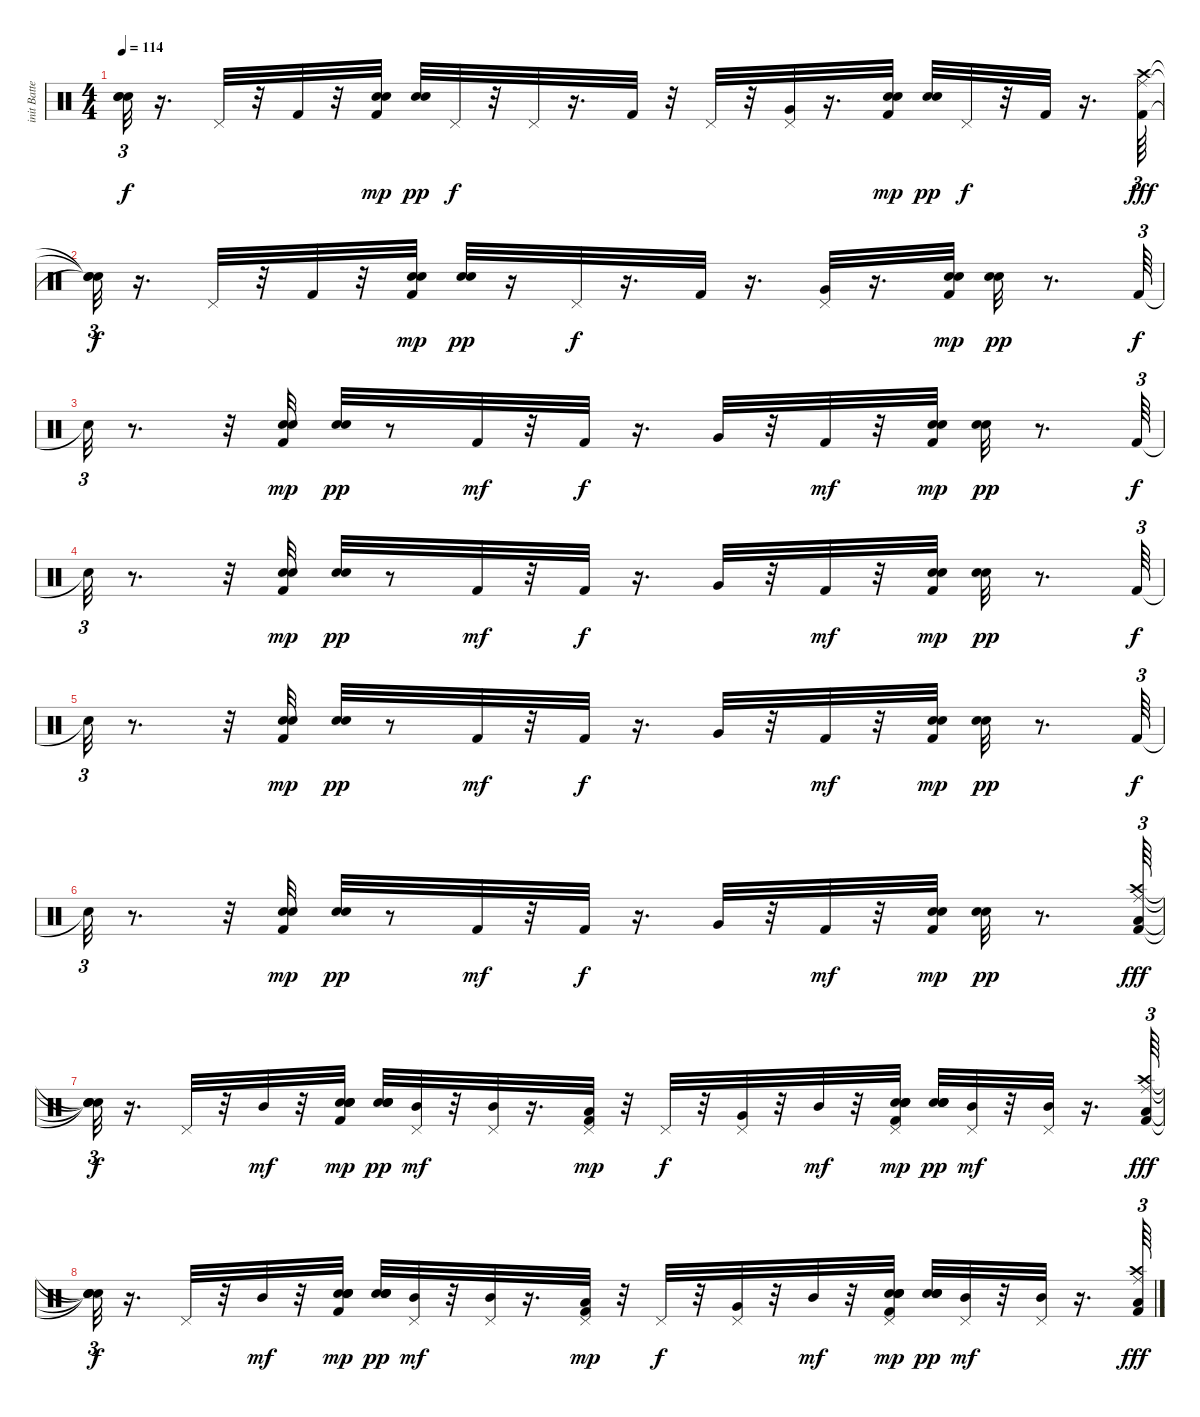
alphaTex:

\track ("init Batterie" "init Batte") {instrument percussion}
\staff {score}
\articulation defaults
\ts (4 4)
\tempo 114
\clef neutral
\ks c
("Snare (hit)"{t} "Snare (hit)"{t} "Snare (hit)"{t}).32{tu (3 2) dy f} r.16{d} "Pedal Hi-Hat (hit)".32 r.32 "Kick (hit) 2".32 r.32 ("Hand Clap (hit)" "Kick (hit) 2" "Hand Clap (hit)").32{dy mp} ("Hand Clap (hit)" "Hand Clap (hit)").32{dy pp} "Pedal Hi-Hat (hit)".32{dy f} r.32 "Pedal Hi-Hat (hit)".32 r.16{d} "Kick (hit) 2".32 r.32 "Pedal Hi-Hat (hit)".32 r.32 ("Very Low Tom (hit)" "Pedal Hi-Hat (hit)").32 r.16{d} ("Hand Clap (hit)" "Kick (hit) 2" "Hand Clap (hit)").32{dy mp} ("Hand Clap (hit)" "Hand Clap (hit)").32{dy pp} "Pedal Hi-Hat (hit)".32{dy f} r.32 "Kick (hit) 2".32 r.16{d} ("Kick (hit) 2" "Crash high (hit)" "Ride (middle)").64{tu (3 2) dy fff} |
("Snare (hit)"{t} "Snare (hit)"{t} "Snare (hit)"{t}).32{tu (3 2) dy f} r.16{d} "Pedal Hi-Hat (hit)".32 r.32 "Kick (hit) 2".32 r.32 ("Hand Clap (hit)" "Kick (hit) 2" "Hand Clap (hit)").32{dy mp} ("Hand Clap (hit)" "Hand Clap (hit)").32{dy pp} r.16 "Pedal Hi-Hat (hit)".32{dy f} r.16{d} "Kick (hit) 2".32 r.16{d} ("Very Low Tom (hit)" "Pedal Hi-Hat (hit)").32 r.16{d} ("Hand Clap (hit)" "Kick (hit) 2" "Hand Clap (hit)").32{dy mp} ("Hand Clap (hit)" "Hand Clap (hit)").32{dy pp} r.8{d} "Kick (hit) 2".64{tu (3 2) dy f} |
"Snare (hit)"{t}.32{tu (3 2)} r.8{d} r.32 ("Hand Clap (hit)" "Kick (hit) 2" "Hand Clap (hit)").32{dy mp} ("Hand Clap (hit)" "Hand Clap (hit)").32{dy pp} r.8 "Kick (hit) 2".32{dy mf} r.32 "Kick (hit) 2".32{dy f} r.16{d} "Very Low Tom (hit)".32 r.32 "Kick (hit) 2".32{dy mf} r.32 ("Hand Clap (hit)" "Kick (hit) 2" "Hand Clap (hit)").32{dy mp} ("Hand Clap (hit)" "Hand Clap (hit)").32{dy pp} r.8{d} "Kick (hit) 2".64{tu (3 2) dy f} |
"Snare (hit)"{t}.32{tu (3 2)} r.8{d} r.32 ("Hand Clap (hit)" "Kick (hit) 2" "Hand Clap (hit)").32{dy mp} ("Hand Clap (hit)" "Hand Clap (hit)").32{dy pp} r.8 "Kick (hit) 2".32{dy mf} r.32 "Kick (hit) 2".32{dy f} r.16{d} "Very Low Tom (hit)".32 r.32 "Kick (hit) 2".32{dy mf} r.32 ("Hand Clap (hit)" "Kick (hit) 2" "Hand Clap (hit)").32{dy mp} ("Hand Clap (hit)" "Hand Clap (hit)").32{dy pp} r.8{d} "Kick (hit) 2".64{tu (3 2) dy f} |
"Snare (hit)"{t}.32{tu (3 2)} r.8{d} r.32 ("Hand Clap (hit)" "Kick (hit) 2" "Hand Clap (hit)").32{dy mp} ("Hand Clap (hit)" "Hand Clap (hit)").32{dy pp} r.8 "Kick (hit) 2".32{dy mf} r.32 "Kick (hit) 2".32{dy f} r.16{d} "Very Low Tom (hit)".32 r.32 "Kick (hit) 2".32{dy mf} r.32 ("Hand Clap (hit)" "Kick (hit) 2" "Hand Clap (hit)").32{dy mp} ("Hand Clap (hit)" "Hand Clap (hit)").32{dy pp} r.8{d} "Kick (hit) 2".64{tu (3 2) dy f} |
"Snare (hit)"{t}.32{tu (3 2)} r.8{d} r.32 ("Hand Clap (hit)" "Kick (hit) 2" "Hand Clap (hit)").32{dy mp} ("Hand Clap (hit)" "Hand Clap (hit)").32{dy pp} r.8 "Kick (hit) 2".32{dy mf} r.32 "Kick (hit) 2".32{dy f} r.16{d} "Very Low Tom (hit)".32 r.32 "Kick (hit) 2".32{dy mf} r.32 ("Hand Clap (hit)" "Kick (hit) 2" "Hand Clap (hit)").32{dy mp} ("Hand Clap (hit)" "Hand Clap (hit)").32{dy pp} r.8{d} ("Kick (hit) 2" "Low Tom (hit)" "Crash high (hit)" "Ride (middle)").64{tu (3 2) dy fff} |
("Snare (hit)"{t} "Snare (hit)"{t} "Snare (hit)"{t} "Snare (hit)"{t}).32{tu (3 2) dy f} r.16{d} "Pedal Hi-Hat (hit)".32 r.32 "Mid Tom (hit)".32{dy mf} r.32 ("Snare (hit) 2" "Hand Clap (hit)" "Kick (hit) 2" "Snare (hit) 2" "Hand Clap (hit)").32{dy mp} ("Snare (hit) 2" "Snare (hit) 2" "Hand Clap (hit)" "Hand Clap (hit)").32{dy pp} ("Pedal Hi-Hat (hit)" "Mid Tom (hit)").32{dy mf} r.32 ("Pedal Hi-Hat (hit)" "Mid Tom (hit)").32 r.16{d} ("Kick (hit) 2" "Pedal Hi-Hat (hit)" "Low Tom (hit)").32{dy mp} r.32 "Pedal Hi-Hat (hit)".32{dy f} r.32 ("Very Low Tom (hit)" "Pedal Hi-Hat (hit)").32 r.32 "Mid Tom (hit)".32{dy mf} r.32 ("Snare (hit) 2" "Hand Clap (hit)" "Kick (hit) 2" "Snare (hit) 2" "Hand Clap (hit)" "Pedal Hi-Hat (hit)").32{dy mp} ("Snare (hit) 2" "Snare (hit) 2" "Hand Clap (hit)" "Hand Clap (hit)").32{dy pp} ("Pedal Hi-Hat (hit)" "Mid Tom (hit)").32{dy mf} r.32 ("Pedal Hi-Hat (hit)" "Mid Tom (hit)").32 r.16{d} ("Kick (hit) 2" "Low Tom (hit)" "Crash high (hit)" "Ride (middle)").64{tu (3 2) dy fff} |
("Snare (hit)"{t} "Snare (hit)"{t} "Snare (hit)"{t} "Snare (hit)"{t}).32{tu (3 2) dy f} r.16{d} "Pedal Hi-Hat (hit)".32 r.32 "Mid Tom (hit)".32{dy mf} r.32 ("Snare (hit) 2" "Hand Clap (hit)" "Kick (hit) 2" "Snare (hit) 2" "Hand Clap (hit)").32{dy mp} ("Snare (hit) 2" "Snare (hit) 2" "Hand Clap (hit)" "Hand Clap (hit)").32{dy pp} ("Pedal Hi-Hat (hit)" "Mid Tom (hit)").32{dy mf} r.32 ("Pedal Hi-Hat (hit)" "Mid Tom (hit)").32 r.16{d} ("Kick (hit) 2" "Pedal Hi-Hat (hit)" "Low Tom (hit)").32{dy mp} r.32 "Pedal Hi-Hat (hit)".32{dy f} r.32 ("Very Low Tom (hit)" "Pedal Hi-Hat (hit)").32 r.32 "Mid Tom (hit)".32{dy mf} r.32 ("Snare (hit) 2" "Hand Clap (hit)" "Kick (hit) 2" "Snare (hit) 2" "Hand Clap (hit)" "Pedal Hi-Hat (hit)").32{dy mp} ("Snare (hit) 2" "Snare (hit) 2" "Hand Clap (hit)" "Hand Clap (hit)").32{dy pp} ("Pedal Hi-Hat (hit)" "Mid Tom (hit)").32{dy mf} r.32 ("Pedal Hi-Hat (hit)" "Mid Tom (hit)").32 r.16{d} ("Kick (hit) 2" "Low Tom (hit)" "Crash high (hit)" "Ride (middle)").64{tu (3 2) dy fff}
